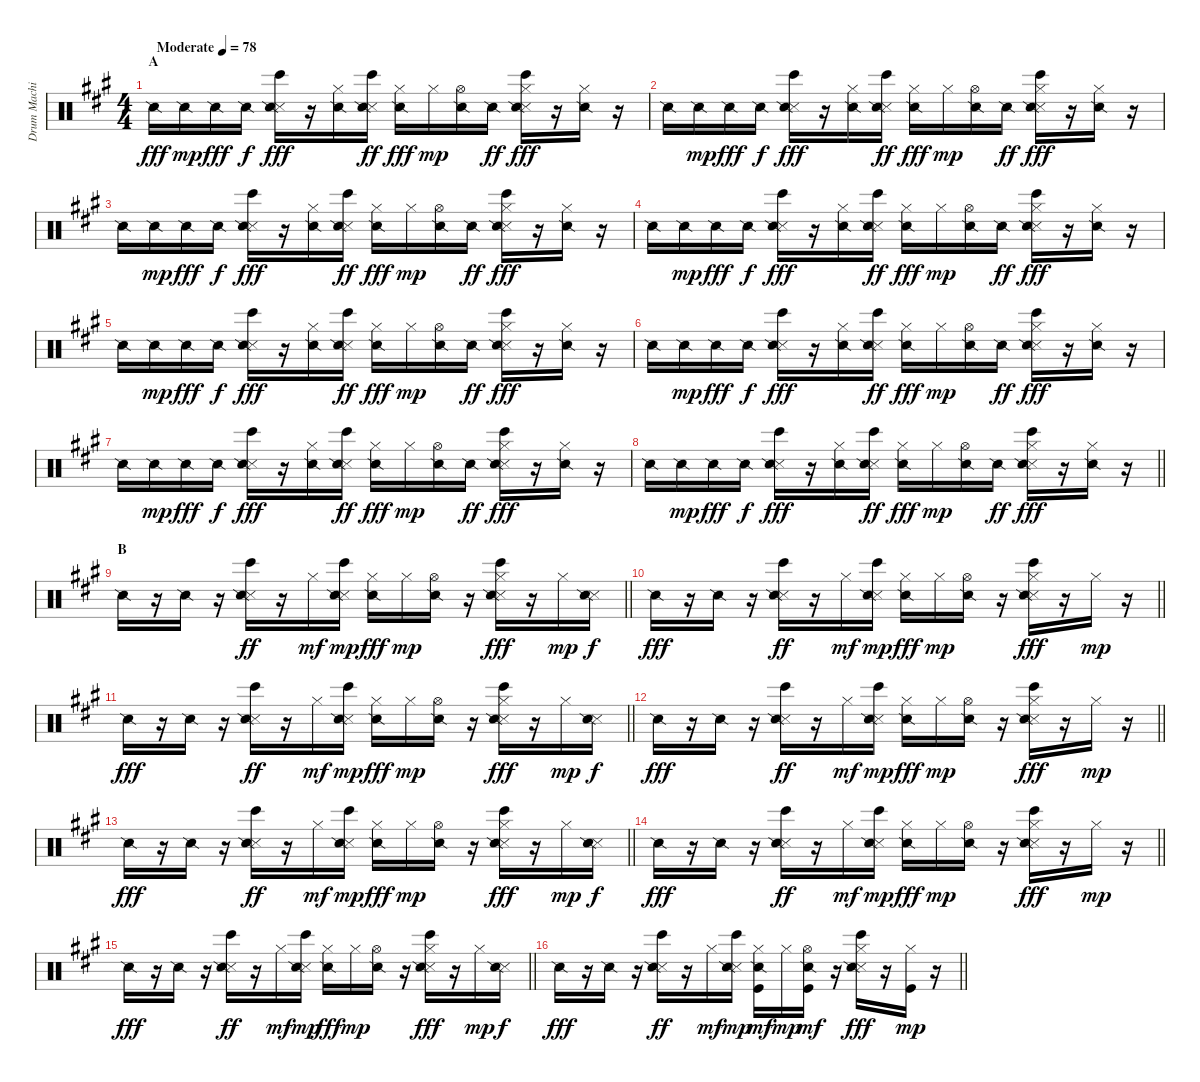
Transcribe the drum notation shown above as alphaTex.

\track ("Drum Machine" "Drum Machi") {instrument percussion}
\staff {score}
\articulation defaults
\ts (4 4)
\section ("" "A")
\tempo (78 "Moderate")
\clef neutral
\ks a "Snare (side stick) 2".16{dy fff} "Snare (side stick) 2".16{dy mp} "Snare (side stick) 2".16{dy fff} "Snare (side stick) 2".16{dy f}
("Bongo High (hit)" "Metronome (hit)" "Snare (side stick) 2").16{dy fff} r.16 ("Hi-Hat (closed)" "Snare (side stick) 2").16 ("Bongo High (hit)" "Metronome (hit)" "Snare (side stick) 2").16{dy ff} ("Hi-Hat (closed)" "Snare (side stick) 2").16{dy fff} "Hi-Hat (closed)".16{dy mp} ("Hi-Hat (open)" "Snare (side stick) 2").16 "Snare (side stick) 2".16{dy ff} ("Hi-Hat (closed)" "Bongo High (hit)" "Metronome (hit)" "Snare (side stick) 2").16{dy fff} r.16 ("Hi-Hat (closed)" "Snare (side stick) 2").16 r.16 |
"Snare (side stick) 2".16 "Snare (side stick) 2".16{dy mp} "Snare (side stick) 2".16{dy fff} "Snare (side stick) 2".16{dy f} ("Bongo High (hit)" "Metronome (hit)" "Snare (side stick) 2").16{dy fff} r.16 ("Hi-Hat (closed)" "Snare (side stick) 2").16 ("Bongo High (hit)" "Metronome (hit)" "Snare (side stick) 2").16{dy ff} ("Hi-Hat (closed)" "Snare (side stick) 2").16{dy fff} "Hi-Hat (closed)".16{dy mp} ("Hi-Hat (open)" "Snare (side stick) 2").16 "Snare (side stick) 2".16{dy ff} ("Hi-Hat (closed)" "Bongo High (hit)" "Metronome (hit)" "Snare (side stick) 2").16{dy fff} r.16 ("Hi-Hat (closed)" "Snare (side stick) 2").16 r.16 |
"Snare (side stick) 2".16 "Snare (side stick) 2".16{dy mp} "Snare (side stick) 2".16{dy fff} "Snare (side stick) 2".16{dy f} ("Bongo High (hit)" "Metronome (hit)" "Snare (side stick) 2").16{dy fff} r.16 ("Hi-Hat (closed)" "Snare (side stick) 2").16 ("Bongo High (hit)" "Metronome (hit)" "Snare (side stick) 2").16{dy ff} ("Hi-Hat (closed)" "Snare (side stick) 2").16{dy fff} "Hi-Hat (closed)".16{dy mp} ("Hi-Hat (open)" "Snare (side stick) 2").16 "Snare (side stick) 2".16{dy ff} ("Hi-Hat (closed)" "Bongo High (hit)" "Metronome (hit)" "Snare (side stick) 2").16{dy fff} r.16 ("Hi-Hat (closed)" "Snare (side stick) 2").16 r.16 |
"Snare (side stick) 2".16 "Snare (side stick) 2".16{dy mp} "Snare (side stick) 2".16{dy fff} "Snare (side stick) 2".16{dy f} ("Bongo High (hit)" "Metronome (hit)" "Snare (side stick) 2").16{dy fff} r.16 ("Hi-Hat (closed)" "Snare (side stick) 2").16 ("Bongo High (hit)" "Metronome (hit)" "Snare (side stick) 2").16{dy ff} ("Hi-Hat (closed)" "Snare (side stick) 2").16{dy fff} "Hi-Hat (closed)".16{dy mp} ("Hi-Hat (open)" "Snare (side stick) 2").16 "Snare (side stick) 2".16{dy ff} ("Hi-Hat (closed)" "Bongo High (hit)" "Metronome (hit)" "Snare (side stick) 2").16{dy fff} r.16 ("Hi-Hat (closed)" "Snare (side stick) 2").16 r.16 |
"Snare (side stick) 2".16 "Snare (side stick) 2".16{dy mp} "Snare (side stick) 2".16{dy fff} "Snare (side stick) 2".16{dy f} ("Bongo High (hit)" "Metronome (hit)" "Snare (side stick) 2").16{dy fff} r.16 ("Hi-Hat (closed)" "Snare (side stick) 2").16 ("Bongo High (hit)" "Metronome (hit)" "Snare (side stick) 2").16{dy ff} ("Hi-Hat (closed)" "Snare (side stick) 2").16{dy fff} "Hi-Hat (closed)".16{dy mp} ("Hi-Hat (open)" "Snare (side stick) 2").16 "Snare (side stick) 2".16{dy ff} ("Hi-Hat (closed)" "Bongo High (hit)" "Metronome (hit)" "Snare (side stick) 2").16{dy fff} r.16 ("Hi-Hat (closed)" "Snare (side stick) 2").16 r.16 |
"Snare (side stick) 2".16 "Snare (side stick) 2".16{dy mp} "Snare (side stick) 2".16{dy fff} "Snare (side stick) 2".16{dy f} ("Bongo High (hit)" "Metronome (hit)" "Snare (side stick) 2").16{dy fff} r.16 ("Hi-Hat (closed)" "Snare (side stick) 2").16 ("Bongo High (hit)" "Metronome (hit)" "Snare (side stick) 2").16{dy ff} ("Hi-Hat (closed)" "Snare (side stick) 2").16{dy fff} "Hi-Hat (closed)".16{dy mp} ("Hi-Hat (open)" "Snare (side stick) 2").16 "Snare (side stick) 2".16{dy ff} ("Hi-Hat (closed)" "Bongo High (hit)" "Metronome (hit)" "Snare (side stick) 2").16{dy fff} r.16 ("Hi-Hat (closed)" "Snare (side stick) 2").16 r.16 |
"Snare (side stick) 2".16 "Snare (side stick) 2".16{dy mp} "Snare (side stick) 2".16{dy fff} "Snare (side stick) 2".16{dy f} ("Bongo High (hit)" "Metronome (hit)" "Snare (side stick) 2").16{dy fff} r.16 ("Hi-Hat (closed)" "Snare (side stick) 2").16 ("Bongo High (hit)" "Metronome (hit)" "Snare (side stick) 2").16{dy ff} ("Hi-Hat (closed)" "Snare (side stick) 2").16{dy fff} "Hi-Hat (closed)".16{dy mp} ("Hi-Hat (open)" "Snare (side stick) 2").16 "Snare (side stick) 2".16{dy ff} ("Hi-Hat (closed)" "Bongo High (hit)" "Metronome (hit)" "Snare (side stick) 2").16{dy fff} r.16 ("Hi-Hat (closed)" "Snare (side stick) 2").16 r.16 |
\barLineRight lightlight "Snare (side stick) 2".16 "Snare (side stick) 2".16{dy mp} "Snare (side stick) 2".16{dy fff} "Snare (side stick) 2".16{dy f}
("Bongo High (hit)" "Metronome (hit)" "Snare (side stick) 2").16{dy fff} r.16 ("Hi-Hat (closed)" "Snare (side stick) 2").16 ("Bongo High (hit)" "Metronome (hit)" "Snare (side stick) 2").16{dy ff} ("Hi-Hat (closed)" "Snare (side stick) 2").16{dy fff} "Hi-Hat (closed)".16{dy mp} ("Hi-Hat (open)" "Snare (side stick) 2").16 "Snare (side stick) 2".16{dy ff} ("Hi-Hat (closed)" "Bongo High (hit)" "Metronome (hit)" "Snare (side stick) 2").16{dy fff} r.16 ("Hi-Hat (closed)" "Snare (side stick) 2").16 r.16 |
\section ("" "B")
\barLineRight lightlight "Snare (side stick) 2".16
r.16 "Snare (side stick) 2".16 r.16 ("Bongo High (hit)" "Metronome (hit)" "Snare (side stick) 2").16{dy ff} r.16 "Hi-Hat (closed)".16{dy mf} ("Bongo High (hit)" "Metronome (hit)" "Snare (side stick) 2").16{dy mp} ("Hi-Hat (closed)" "Snare (side stick) 2").16{dy fff} "Hi-Hat (closed)".16{dy mp} ("Hi-Hat (open)" "Snare (side stick) 2").16 r.16 ("Hi-Hat (closed)" "Bongo High (hit)" "Metronome (hit)" "Snare (side stick) 2").16{dy fff} r.16 "Hi-Hat (closed)".16{dy mp} ("Metronome (hit)" "Snare (side stick) 2").16{dy f} |
\barLineRight lightlight "Snare (side stick) 2".16{dy fff}
r.16 "Snare (side stick) 2".16 r.16 ("Bongo High (hit)" "Metronome (hit)" "Snare (side stick) 2").16{dy ff} r.16 "Hi-Hat (closed)".16{dy mf} ("Bongo High (hit)" "Metronome (hit)" "Snare (side stick) 2").16{dy mp} ("Hi-Hat (closed)" "Snare (side stick) 2").16{dy fff} "Hi-Hat (closed)".16{dy mp} ("Hi-Hat (open)" "Snare (side stick) 2").16 r.16 ("Hi-Hat (closed)" "Bongo High (hit)" "Metronome (hit)" "Snare (side stick) 2").16{dy fff} r.16 "Hi-Hat (closed)".16{dy mp} r.16 |
\barLineRight lightlight "Snare (side stick) 2".16{dy fff}
r.16 "Snare (side stick) 2".16 r.16 ("Bongo High (hit)" "Metronome (hit)" "Snare (side stick) 2").16{dy ff} r.16 "Hi-Hat (closed)".16{dy mf} ("Bongo High (hit)" "Metronome (hit)" "Snare (side stick) 2").16{dy mp} ("Hi-Hat (closed)" "Snare (side stick) 2").16{dy fff} "Hi-Hat (closed)".16{dy mp} ("Hi-Hat (open)" "Snare (side stick) 2").16 r.16 ("Hi-Hat (closed)" "Bongo High (hit)" "Metronome (hit)" "Snare (side stick) 2").16{dy fff} r.16 "Hi-Hat (closed)".16{dy mp} ("Metronome (hit)" "Snare (side stick) 2").16{dy f} |
\barLineRight lightlight "Snare (side stick) 2".16{dy fff}
r.16 "Snare (side stick) 2".16 r.16 ("Bongo High (hit)" "Metronome (hit)" "Snare (side stick) 2").16{dy ff} r.16 "Hi-Hat (closed)".16{dy mf} ("Bongo High (hit)" "Metronome (hit)" "Snare (side stick) 2").16{dy mp} ("Hi-Hat (closed)" "Snare (side stick) 2").16{dy fff} "Hi-Hat (closed)".16{dy mp} ("Hi-Hat (open)" "Snare (side stick) 2").16 r.16 ("Hi-Hat (closed)" "Bongo High (hit)" "Metronome (hit)" "Snare (side stick) 2").16{dy fff} r.16 "Hi-Hat (closed)".16{dy mp} r.16 |
\barLineRight lightlight "Snare (side stick) 2".16{dy fff}
r.16 "Snare (side stick) 2".16 r.16 ("Bongo High (hit)" "Metronome (hit)" "Snare (side stick) 2").16{dy ff} r.16 "Hi-Hat (closed)".16{dy mf} ("Bongo High (hit)" "Metronome (hit)" "Snare (side stick) 2").16{dy mp} ("Hi-Hat (closed)" "Snare (side stick) 2").16{dy fff} "Hi-Hat (closed)".16{dy mp} ("Hi-Hat (open)" "Snare (side stick) 2").16 r.16 ("Hi-Hat (closed)" "Bongo High (hit)" "Metronome (hit)" "Snare (side stick) 2").16{dy fff} r.16 "Hi-Hat (closed)".16{dy mp} ("Metronome (hit)" "Snare (side stick) 2").16{dy f} |
\barLineRight lightlight "Snare (side stick) 2".16{dy fff}
r.16 "Snare (side stick) 2".16 r.16 ("Bongo High (hit)" "Metronome (hit)" "Snare (side stick) 2").16{dy ff} r.16 "Hi-Hat (closed)".16{dy mf} ("Bongo High (hit)" "Metronome (hit)" "Snare (side stick) 2").16{dy mp} ("Hi-Hat (closed)" "Snare (side stick) 2").16{dy fff} "Hi-Hat (closed)".16{dy mp} ("Hi-Hat (open)" "Snare (side stick) 2").16 r.16 ("Hi-Hat (closed)" "Bongo High (hit)" "Metronome (hit)" "Snare (side stick) 2").16{dy fff} r.16 "Hi-Hat (closed)".16{dy mp} r.16 |
\barLineRight lightlight "Snare (side stick) 2".16{dy fff}
r.16 "Snare (side stick) 2".16 r.16 ("Bongo High (hit)" "Metronome (hit)" "Snare (side stick) 2").16{dy ff} r.16 "Hi-Hat (closed)".16{dy mf} ("Bongo High (hit)" "Metronome (hit)" "Snare (side stick) 2").16{dy mp} ("Hi-Hat (closed)" "Snare (side stick) 2").16{dy fff} "Hi-Hat (closed)".16{dy mp} ("Hi-Hat (open)" "Snare (side stick) 2").16 r.16 ("Hi-Hat (closed)" "Bongo High (hit)" "Metronome (hit)" "Snare (side stick) 2").16{dy fff} r.16 "Hi-Hat (closed)".16{dy mp} ("Metronome (hit)" "Snare (side stick) 2").16{dy f} |
\barLineRight lightlight "Snare (side stick) 2".16{dy fff}
r.16 "Snare (side stick) 2".16 r.16 ("Bongo High (hit)" "Metronome (hit)" "Snare (side stick) 2").16{dy ff} r.16 "Hi-Hat (closed)".16{dy mf} ("Bongo High (hit)" "Metronome (hit)" "Snare (side stick) 2").16{dy mp} ("Hi-Hat (closed)" "Snare (side stick) 2" "Kick (hit)").16{dy mf} "Hi-Hat (closed)".16{dy mp} ("Hi-Hat (open)" "Snare (side stick) 2" "Kick (hit)").16{dy mf} r.16 ("Hi-Hat (closed)" "Bongo High (hit)" "Metronome (hit)" "Snare (side stick) 2").16{dy fff} r.16 ("Hi-Hat (closed)" "Kick (hit)").16{dy mp} r.16
